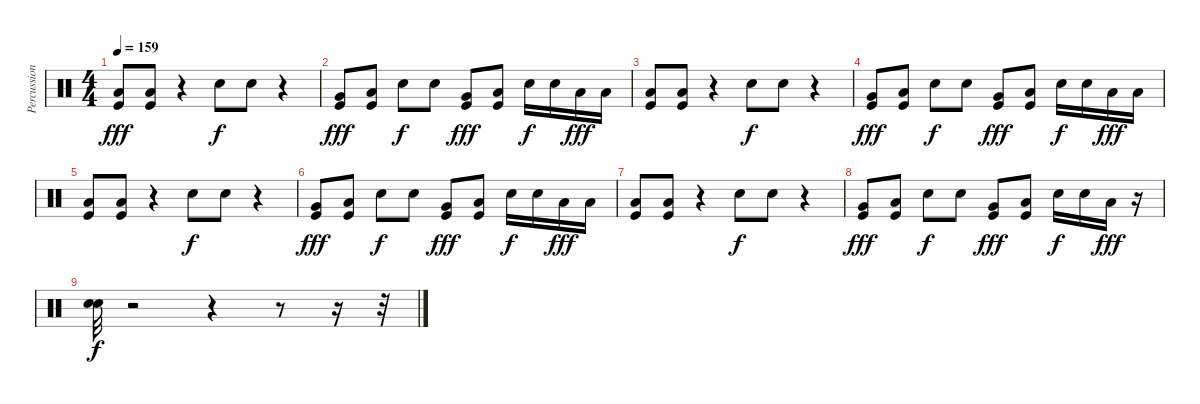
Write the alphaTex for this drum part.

\track ("Percussion" "Percussion") {instrument percussion}
\staff {score}
\articulation defaults
\ts (4 4)
\tempo 159
\clef neutral
\ks c
("Low Tom (hit)" "Kick (hit)").8{dy fff} ("Low Tom (hit)" "Kick (hit)").8 r.4 "Snare (hit) 2".8{dy f} "Snare (hit) 2".8 r.4 |
("Very Low Tom (hit)" "Kick (hit)").8{dy fff} ("Low Tom (hit)" "Kick (hit)").8 "Snare (hit) 2".8{dy f} "Snare (hit) 2".8 ("Very Low Tom (hit)" "Kick (hit)").8{dy fff} ("Low Tom (hit)" "Kick (hit)").8 "Snare (hit) 2".16{dy f} "Snare (hit) 2".16 "Low Tom (hit)".16{dy fff} "Low Tom (hit)".16 |
("Low Tom (hit)" "Kick (hit)").8 ("Low Tom (hit)" "Kick (hit)").8 r.4 "Snare (hit) 2".8{dy f} "Snare (hit) 2".8 r.4 |
("Very Low Tom (hit)" "Kick (hit)").8{dy fff} ("Low Tom (hit)" "Kick (hit)").8 "Snare (hit) 2".8{dy f} "Snare (hit) 2".8 ("Very Low Tom (hit)" "Kick (hit)").8{dy fff} ("Low Tom (hit)" "Kick (hit)").8 "Snare (hit) 2".16{dy f} "Snare (hit) 2".16 "Low Tom (hit)".16{dy fff} "Low Tom (hit)".16 |
("Low Tom (hit)" "Kick (hit)").8 ("Low Tom (hit)" "Kick (hit)").8 r.4 "Snare (hit) 2".8{dy f} "Snare (hit) 2".8 r.4 |
("Very Low Tom (hit)" "Kick (hit)").8{dy fff} ("Low Tom (hit)" "Kick (hit)").8 "Snare (hit) 2".8{dy f} "Snare (hit) 2".8 ("Very Low Tom (hit)" "Kick (hit)").8{dy fff} ("Low Tom (hit)" "Kick (hit)").8 "Snare (hit) 2".16{dy f} "Snare (hit) 2".16 "Low Tom (hit)".16{dy fff} "Low Tom (hit)".16 |
("Low Tom (hit)" "Kick (hit)").8 ("Low Tom (hit)" "Kick (hit)").8 r.4 "Snare (hit) 2".8{dy f} "Snare (hit) 2".8 r.4 |
("Very Low Tom (hit)" "Kick (hit)").8{dy fff} ("Low Tom (hit)" "Kick (hit)").8 "Snare (hit) 2".8{dy f} "Snare (hit) 2".8 ("Very Low Tom (hit)" "Kick (hit)").8{dy fff} ("Low Tom (hit)" "Kick (hit)").8 "Snare (hit) 2".16{dy f} "Snare (hit) 2".16 "Low Tom (hit)".16{dy fff} r.16 |
("Snare (hit) 2" "Snare (hit) 2").32{dy f} r.2 r.4 r.8 r.16 r.32
